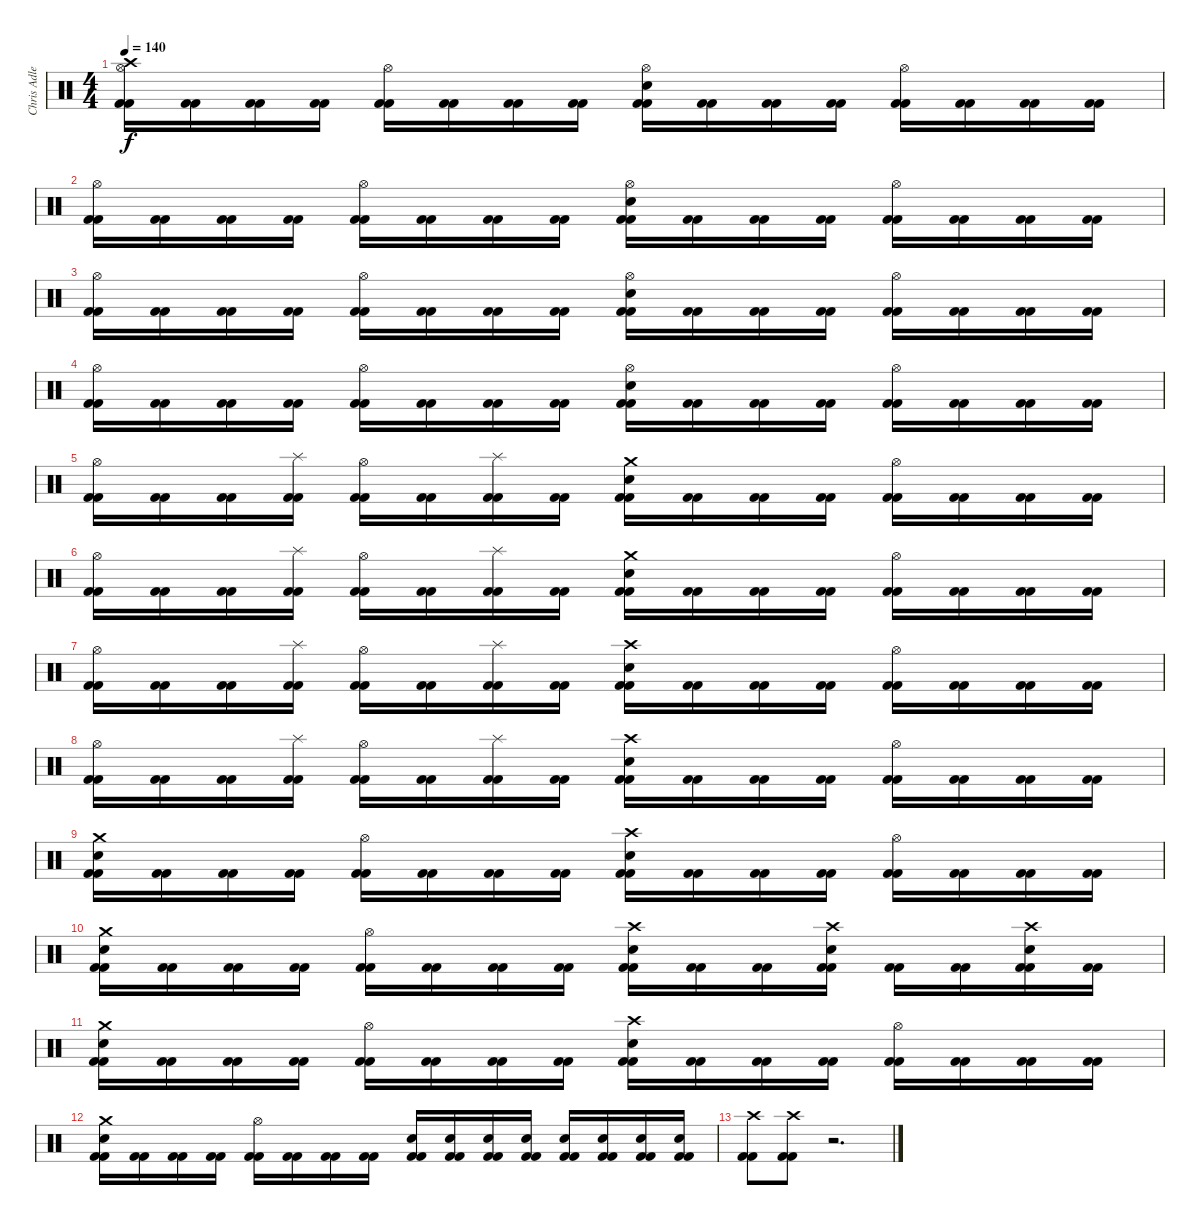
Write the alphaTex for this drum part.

\track ("Chris Adler" "Chris Adle") {instrument percussion}
\staff {score}
\articulation defaults
\ts (4 4)
\tempo 140
\clef neutral
\ks c
("Crash high (hit)" "Hi-Hat (open)" "Kick (hit) 2" "Kick (hit) 2").16{dy f} ("Kick (hit) 2" "Kick (hit) 2").16 ("Kick (hit) 2" "Kick (hit) 2").16 ("Kick (hit) 2" "Kick (hit) 2").16 ("Hi-Hat (open)" "Kick (hit) 2" "Kick (hit) 2").16 ("Kick (hit) 2" "Kick (hit) 2").16 ("Kick (hit) 2" "Kick (hit) 2").16 ("Kick (hit) 2" "Kick (hit) 2").16 ("Hi-Hat (open)" "Electric Snare (hit)" "Kick (hit) 2" "Kick (hit) 2").16 ("Kick (hit) 2" "Kick (hit) 2").16 ("Kick (hit) 2" "Kick (hit) 2").16 ("Kick (hit) 2" "Kick (hit) 2").16 ("Hi-Hat (open)" "Kick (hit) 2" "Kick (hit) 2").16 ("Kick (hit) 2" "Kick (hit) 2").16 ("Kick (hit) 2" "Kick (hit) 2").16 ("Kick (hit) 2" "Kick (hit) 2").16 |
("Hi-Hat (open)" "Kick (hit) 2" "Kick (hit) 2").16 ("Kick (hit) 2" "Kick (hit) 2").16 ("Kick (hit) 2" "Kick (hit) 2").16 ("Kick (hit) 2" "Kick (hit) 2").16 ("Hi-Hat (open)" "Kick (hit) 2" "Kick (hit) 2").16 ("Kick (hit) 2" "Kick (hit) 2").16 ("Kick (hit) 2" "Kick (hit) 2").16 ("Kick (hit) 2" "Kick (hit) 2").16 ("Hi-Hat (open)" "Electric Snare (hit)" "Kick (hit) 2" "Kick (hit) 2").16 ("Kick (hit) 2" "Kick (hit) 2").16 ("Kick (hit) 2" "Kick (hit) 2").16 ("Kick (hit) 2" "Kick (hit) 2").16 ("Hi-Hat (open)" "Kick (hit) 2" "Kick (hit) 2").16 ("Kick (hit) 2" "Kick (hit) 2").16 ("Kick (hit) 2" "Kick (hit) 2").16 ("Kick (hit) 2" "Kick (hit) 2").16 |
("Hi-Hat (open)" "Kick (hit) 2" "Kick (hit) 2").16 ("Kick (hit) 2" "Kick (hit) 2").16 ("Kick (hit) 2" "Kick (hit) 2").16 ("Kick (hit) 2" "Kick (hit) 2").16 ("Hi-Hat (open)" "Kick (hit) 2" "Kick (hit) 2").16 ("Kick (hit) 2" "Kick (hit) 2").16 ("Kick (hit) 2" "Kick (hit) 2").16 ("Kick (hit) 2" "Kick (hit) 2").16 ("Hi-Hat (open)" "Electric Snare (hit)" "Kick (hit) 2" "Kick (hit) 2").16 ("Kick (hit) 2" "Kick (hit) 2").16 ("Kick (hit) 2" "Kick (hit) 2").16 ("Kick (hit) 2" "Kick (hit) 2").16 ("Hi-Hat (open)" "Kick (hit) 2" "Kick (hit) 2").16 ("Kick (hit) 2" "Kick (hit) 2").16 ("Kick (hit) 2" "Kick (hit) 2").16 ("Kick (hit) 2" "Kick (hit) 2").16 |
("Hi-Hat (open)" "Kick (hit) 2" "Kick (hit) 2").16 ("Kick (hit) 2" "Kick (hit) 2").16 ("Kick (hit) 2" "Kick (hit) 2").16 ("Kick (hit) 2" "Kick (hit) 2").16 ("Hi-Hat (open)" "Kick (hit) 2" "Kick (hit) 2").16 ("Kick (hit) 2" "Kick (hit) 2").16 ("Kick (hit) 2" "Kick (hit) 2").16 ("Kick (hit) 2" "Kick (hit) 2").16 ("Hi-Hat (open)" "Electric Snare (hit)" "Kick (hit) 2" "Kick (hit) 2").16 ("Kick (hit) 2" "Kick (hit) 2").16 ("Kick (hit) 2" "Kick (hit) 2").16 ("Kick (hit) 2" "Kick (hit) 2").16 ("Hi-Hat (open)" "Kick (hit) 2" "Kick (hit) 2").16 ("Kick (hit) 2" "Kick (hit) 2").16 ("Kick (hit) 2" "Kick (hit) 2").16 ("Kick (hit) 2" "Kick (hit) 2").16 |
("Hi-Hat (open)" "Kick (hit) 2" "Kick (hit) 2").16 ("Kick (hit) 2" "Kick (hit) 2").16 ("Kick (hit) 2" "Kick (hit) 2").16 ("Splash (hit)" "Kick (hit) 2" "Kick (hit) 2").16 ("Hi-Hat (open)" "Kick (hit) 2" "Kick (hit) 2").16 ("Kick (hit) 2" "Kick (hit) 2").16 ("Splash (hit)" "Kick (hit) 2" "Kick (hit) 2").16 ("Kick (hit) 2" "Kick (hit) 2").16 ("Crash medium (hit)" "Electric Snare (hit)" "Kick (hit) 2" "Kick (hit) 2").16 ("Kick (hit) 2" "Kick (hit) 2").16 ("Kick (hit) 2" "Kick (hit) 2").16 ("Kick (hit) 2" "Kick (hit) 2").16 ("Hi-Hat (open)" "Kick (hit) 2" "Kick (hit) 2").16 ("Kick (hit) 2" "Kick (hit) 2").16 ("Kick (hit) 2" "Kick (hit) 2").16 ("Kick (hit) 2" "Kick (hit) 2").16 |
("Hi-Hat (open)" "Kick (hit) 2" "Kick (hit) 2").16 ("Kick (hit) 2" "Kick (hit) 2").16 ("Kick (hit) 2" "Kick (hit) 2").16 ("Splash (hit)" "Kick (hit) 2" "Kick (hit) 2").16 ("Hi-Hat (open)" "Kick (hit) 2" "Kick (hit) 2").16 ("Kick (hit) 2" "Kick (hit) 2").16 ("Splash (hit)" "Kick (hit) 2" "Kick (hit) 2").16 ("Kick (hit) 2" "Kick (hit) 2").16 ("Crash medium (hit)" "Electric Snare (hit)" "Kick (hit) 2" "Kick (hit) 2").16 ("Kick (hit) 2" "Kick (hit) 2").16 ("Kick (hit) 2" "Kick (hit) 2").16 ("Kick (hit) 2" "Kick (hit) 2").16 ("Hi-Hat (open)" "Kick (hit) 2" "Kick (hit) 2").16 ("Kick (hit) 2" "Kick (hit) 2").16 ("Kick (hit) 2" "Kick (hit) 2").16 ("Kick (hit) 2" "Kick (hit) 2").16 |
("Hi-Hat (open)" "Kick (hit) 2" "Kick (hit) 2").16 ("Kick (hit) 2" "Kick (hit) 2").16 ("Kick (hit) 2" "Kick (hit) 2").16 ("Splash (hit)" "Kick (hit) 2" "Kick (hit) 2").16 ("Hi-Hat (open)" "Kick (hit) 2" "Kick (hit) 2").16 ("Kick (hit) 2" "Kick (hit) 2").16 ("Splash (hit)" "Kick (hit) 2" "Kick (hit) 2").16 ("Kick (hit) 2" "Kick (hit) 2").16 ("Crash high (hit)" "Electric Snare (hit)" "Kick (hit) 2" "Kick (hit) 2").16 ("Kick (hit) 2" "Kick (hit) 2").16 ("Kick (hit) 2" "Kick (hit) 2").16 ("Kick (hit) 2" "Kick (hit) 2").16 ("Hi-Hat (open)" "Kick (hit) 2" "Kick (hit) 2").16 ("Kick (hit) 2" "Kick (hit) 2").16 ("Kick (hit) 2" "Kick (hit) 2").16 ("Kick (hit) 2" "Kick (hit) 2").16 |
("Hi-Hat (open)" "Kick (hit) 2" "Kick (hit) 2").16 ("Kick (hit) 2" "Kick (hit) 2").16 ("Kick (hit) 2" "Kick (hit) 2").16 ("Splash (hit)" "Kick (hit) 2" "Kick (hit) 2").16 ("Hi-Hat (open)" "Kick (hit) 2" "Kick (hit) 2").16 ("Kick (hit) 2" "Kick (hit) 2").16 ("Splash (hit)" "Kick (hit) 2" "Kick (hit) 2").16 ("Kick (hit) 2" "Kick (hit) 2").16 ("Crash high (hit)" "Electric Snare (hit)" "Kick (hit) 2" "Kick (hit) 2").16 ("Kick (hit) 2" "Kick (hit) 2").16 ("Kick (hit) 2" "Kick (hit) 2").16 ("Kick (hit) 2" "Kick (hit) 2").16 ("Hi-Hat (open)" "Kick (hit) 2" "Kick (hit) 2").16 ("Kick (hit) 2" "Kick (hit) 2").16 ("Kick (hit) 2" "Kick (hit) 2").16 ("Kick (hit) 2" "Kick (hit) 2").16 |
("Crash medium (hit)" "Electric Snare (hit)" "Kick (hit) 2" "Kick (hit) 2").16 ("Kick (hit) 2" "Kick (hit) 2").16 ("Kick (hit) 2" "Kick (hit) 2").16 ("Kick (hit) 2" "Kick (hit) 2").16 ("Hi-Hat (open)" "Kick (hit) 2" "Kick (hit) 2").16 ("Kick (hit) 2" "Kick (hit) 2").16 ("Kick (hit) 2" "Kick (hit) 2").16 ("Kick (hit) 2" "Kick (hit) 2").16 ("Crash high (hit)" "Electric Snare (hit)" "Kick (hit) 2" "Kick (hit) 2").16 ("Kick (hit) 2" "Kick (hit) 2").16 ("Kick (hit) 2" "Kick (hit) 2").16 ("Kick (hit) 2" "Kick (hit) 2").16 ("Hi-Hat (open)" "Kick (hit) 2" "Kick (hit) 2").16 ("Kick (hit) 2" "Kick (hit) 2").16 ("Kick (hit) 2" "Kick (hit) 2").16 ("Kick (hit) 2" "Kick (hit) 2").16 |
("Crash medium (hit)" "Electric Snare (hit)" "Kick (hit) 2" "Kick (hit) 2").16 ("Kick (hit) 2" "Kick (hit) 2").16 ("Kick (hit) 2" "Kick (hit) 2").16 ("Kick (hit) 2" "Kick (hit) 2").16 ("Hi-Hat (open)" "Kick (hit) 2" "Kick (hit) 2").16 ("Kick (hit) 2" "Kick (hit) 2").16 ("Kick (hit) 2" "Kick (hit) 2").16 ("Kick (hit) 2" "Kick (hit) 2").16 ("Crash high (hit)" "Electric Snare (hit)" "Kick (hit) 2" "Kick (hit) 2").16 ("Kick (hit) 2" "Kick (hit) 2").16 ("Kick (hit) 2" "Kick (hit) 2").16 ("Crash high (hit)" "Electric Snare (hit)" "Kick (hit) 2" "Kick (hit) 2").16 ("Kick (hit) 2" "Kick (hit) 2").16 ("Kick (hit) 2" "Kick (hit) 2").16 ("Crash high (hit)" "Electric Snare (hit)" "Kick (hit) 2" "Kick (hit) 2").16 ("Kick (hit) 2" "Kick (hit) 2").16 |
("Crash medium (hit)" "Electric Snare (hit)" "Kick (hit) 2" "Kick (hit) 2").16 ("Kick (hit) 2" "Kick (hit) 2").16 ("Kick (hit) 2" "Kick (hit) 2").16 ("Kick (hit) 2" "Kick (hit) 2").16 ("Hi-Hat (open)" "Kick (hit) 2" "Kick (hit) 2").16 ("Kick (hit) 2" "Kick (hit) 2").16 ("Kick (hit) 2" "Kick (hit) 2").16 ("Kick (hit) 2" "Kick (hit) 2").16 ("Crash high (hit)" "Electric Snare (hit)" "Kick (hit) 2" "Kick (hit) 2").16 ("Kick (hit) 2" "Kick (hit) 2").16 ("Kick (hit) 2" "Kick (hit) 2").16 ("Kick (hit) 2" "Kick (hit) 2").16 ("Hi-Hat (open)" "Kick (hit) 2" "Kick (hit) 2").16 ("Kick (hit) 2" "Kick (hit) 2").16 ("Kick (hit) 2" "Kick (hit) 2").16 ("Kick (hit) 2" "Kick (hit) 2").16 |
("Crash medium (hit)" "Electric Snare (hit)" "Kick (hit) 2" "Kick (hit) 2").16 ("Kick (hit) 2" "Kick (hit) 2").16 ("Kick (hit) 2" "Kick (hit) 2").16 ("Kick (hit) 2" "Kick (hit) 2").16 ("Hi-Hat (open)" "Kick (hit) 2" "Kick (hit) 2").16 ("Kick (hit) 2" "Kick (hit) 2").16 ("Kick (hit) 2" "Kick (hit) 2").16 ("Kick (hit) 2" "Kick (hit) 2").16 ("Electric Snare (hit)" "Kick (hit) 2" "Kick (hit) 2").16 ("Electric Snare (hit)" "Kick (hit) 2" "Kick (hit) 2").16 ("Electric Snare (hit)" "Kick (hit) 2" "Kick (hit) 2").16 ("Electric Snare (hit)" "Kick (hit) 2" "Kick (hit) 2").16 ("Electric Snare (hit)" "Kick (hit) 2" "Kick (hit) 2").16 ("Electric Snare (hit)" "Kick (hit) 2" "Kick (hit) 2").16 ("Electric Snare (hit)" "Kick (hit) 2" "Kick (hit) 2").16 ("Electric Snare (hit)" "Kick (hit) 2" "Kick (hit) 2").16 |
("Crash high (hit)" "Kick (hit) 2" "Kick (hit) 2").8 ("Crash high (hit)" "Kick (hit) 2" "Kick (hit) 2").8 r.2{d volume 0}
